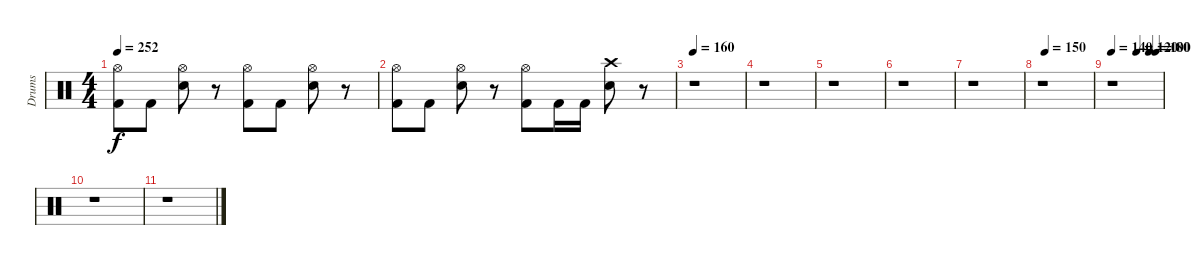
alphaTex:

\track ("Drums" "Drums") {instrument percussion}
\staff {score}
\articulation defaults
\ts (4 4)
\tempo 252
\clef neutral
\ks c
("Hi-Hat (open)" "Kick (hit) 2").8{dy f} "Kick (hit) 2".8 ("Hi-Hat (open)" "Snare (hit) 2").8 r.8 ("Hi-Hat (open)" "Kick (hit) 2").8 "Kick (hit) 2".8 ("Hi-Hat (open)" "Snare (hit) 2").8 r.8 |
("Hi-Hat (open)" "Kick (hit) 2").8 "Kick (hit) 2".8 ("Hi-Hat (open)" "Snare (hit) 2").8 r.8 ("Hi-Hat (open)" "Kick (hit) 2").8 "Kick (hit) 2".16 "Kick (hit) 2".16 ("Crash high (hit)" "Snare (hit) 2").8 r.8 |
\tempo 160
r.1 |
r.1 |
r.1 |
r.1 |
r.1 |
\tempo (150 0.0625)
r.1 |
\tempo 140
\tempo (120 0.5)
\tempo (100 0.75)
\tempo (80 0.875)
r.1 |
r.1 |
r.1
